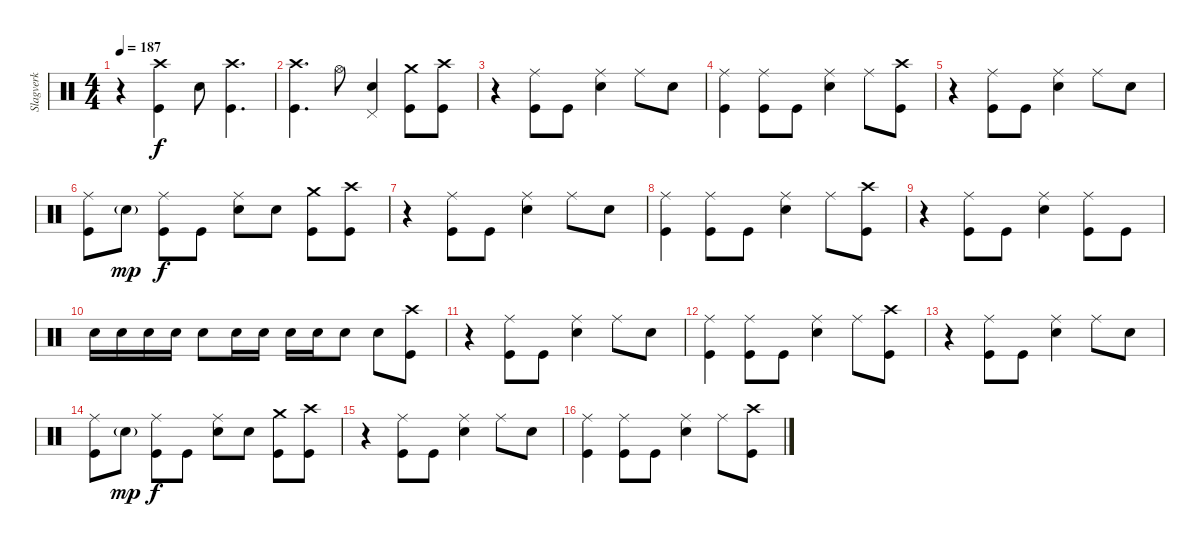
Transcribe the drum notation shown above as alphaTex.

\track ("Slagverk" "Slagverk") {instrument percussion}
\staff {score}
\articulation defaults
\ts (4 4)
\tempo 187
\clef neutral
\ks c
r.4{dy f} ("Crash high (hit)" "Kick (hit)").4 "Electric Snare (hit)".8 ("Crash high (hit)" "Kick (hit)").4{d} |
("Crash high (hit)" "Kick (hit)").4{d} "Hi-Hat (open)".8 ("Pedal Hi-Hat (hit)" "Electric Snare (hit)").4 ("Crash medium (hit)" "Kick (hit)").8 ("Crash high (hit)" "Kick (hit)").8 |
r.4 ("Ride (middle)" "Kick (hit)").8 "Kick (hit)".8 ("Ride (middle)" "Electric Snare (hit)").4 "Ride (middle)".8 "Electric Snare (hit)".8 |
("Ride (middle)" "Kick (hit)").4 ("Ride (middle)" "Kick (hit)").8 "Kick (hit)".8 ("Ride (middle)" "Electric Snare (hit)").4 "Ride (middle)".8 ("Crash high (hit)" "Kick (hit)").8 |
r.4 ("Ride (middle)" "Kick (hit)").8 "Kick (hit)".8 ("Ride (middle)" "Electric Snare (hit)").4 "Ride (middle)".8 "Electric Snare (hit)".8 |
("Ride (middle)" "Kick (hit)").8 "Electric Snare (hit)"{g}.8{dy mp} ("Ride (middle)" "Kick (hit)").8{dy f} "Kick (hit)".8 ("Ride (middle)" "Electric Snare (hit)").8 "Electric Snare (hit)".8 ("Crash medium (hit)" "Kick (hit)").8 ("Crash high (hit)" "Kick (hit)").8 |
r.4 ("Ride (middle)" "Kick (hit)").8 "Kick (hit)".8 ("Ride (middle)" "Electric Snare (hit)").4 "Ride (middle)".8 "Electric Snare (hit)".8 |
("Ride (middle)" "Kick (hit)").4 ("Ride (middle)" "Kick (hit)").8 "Kick (hit)".8 ("Ride (middle)" "Electric Snare (hit)").4 "Ride (middle)".8 ("Crash high (hit)" "Kick (hit)").8 |
r.4 ("Ride (middle)" "Kick (hit)").8 "Kick (hit)".8 ("Ride (middle)" "Electric Snare (hit)").4 ("Ride (middle)" "Kick (hit)").8 "Kick (hit)".8 |
"Electric Snare (hit)".16 "Electric Snare (hit)".16 "Electric Snare (hit)".16 "Electric Snare (hit)".16 "Electric Snare (hit)".8 "Electric Snare (hit)".16 "Electric Snare (hit)".16 "Electric Snare (hit)".16 "Electric Snare (hit)".16 "Electric Snare (hit)".8 "Electric Snare (hit)".8 ("Crash high (hit)" "Kick (hit)").8 |
r.4 ("Ride (middle)" "Kick (hit)").8 "Kick (hit)".8 ("Ride (middle)" "Electric Snare (hit)").4 "Ride (middle)".8 "Electric Snare (hit)".8 |
("Ride (middle)" "Kick (hit)").4 ("Ride (middle)" "Kick (hit)").8 "Kick (hit)".8 ("Ride (middle)" "Electric Snare (hit)").4 "Ride (middle)".8 ("Crash high (hit)" "Kick (hit)").8 |
r.4 ("Ride (middle)" "Kick (hit)").8 "Kick (hit)".8 ("Ride (middle)" "Electric Snare (hit)").4 "Ride (middle)".8 "Electric Snare (hit)".8 |
("Ride (middle)" "Kick (hit)").8 "Electric Snare (hit)"{g}.8{dy mp} ("Ride (middle)" "Kick (hit)").8{dy f} "Kick (hit)".8 ("Ride (middle)" "Electric Snare (hit)").8 "Electric Snare (hit)".8 ("Crash medium (hit)" "Kick (hit)").8 ("Crash high (hit)" "Kick (hit)").8 |
r.4 ("Ride (middle)" "Kick (hit)").8 "Kick (hit)".8 ("Ride (middle)" "Electric Snare (hit)").4 "Ride (middle)".8 "Electric Snare (hit)".8 |
("Ride (middle)" "Kick (hit)").4 ("Ride (middle)" "Kick (hit)").8 "Kick (hit)".8 ("Ride (middle)" "Electric Snare (hit)").4 "Ride (middle)".8 ("Crash high (hit)" "Kick (hit)").8
